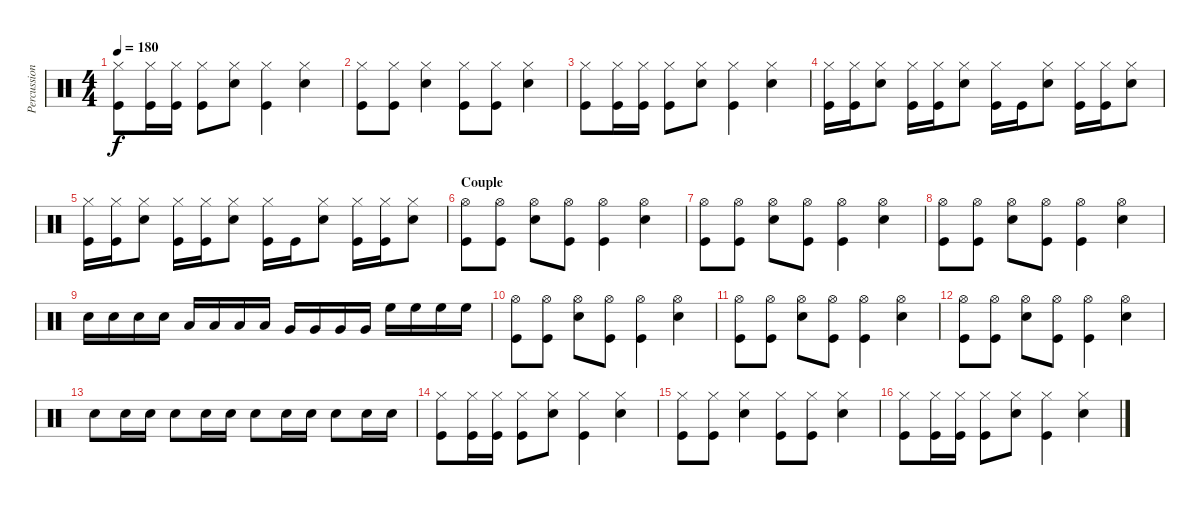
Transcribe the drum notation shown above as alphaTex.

\track ("Percussion" "Percussion") {instrument percussion}
\staff {score}
\articulation defaults
\ts (4 4)
\tempo 180
\clef neutral
\ks c
("Hi-Hat (closed)" "Kick (hit)").8{dy f} ("Hi-Hat (closed)" "Kick (hit)").16 ("Hi-Hat (closed)" "Kick (hit)").16 ("Hi-Hat (closed)" "Kick (hit)").8 ("Hi-Hat (closed)" "Snare (hit) 2").8 ("Hi-Hat (closed)" "Kick (hit)").4 ("Hi-Hat (closed)" "Snare (hit) 2").4 |
("Hi-Hat (closed)" "Kick (hit)").8 ("Hi-Hat (closed)" "Kick (hit)").8 ("Hi-Hat (closed)" "Snare (hit) 2").4 ("Hi-Hat (closed)" "Kick (hit)").8 ("Hi-Hat (closed)" "Kick (hit)").8 ("Hi-Hat (closed)" "Snare (hit) 2").4 |
("Hi-Hat (closed)" "Kick (hit)").8 ("Hi-Hat (closed)" "Kick (hit)").16 ("Hi-Hat (closed)" "Kick (hit)").16 ("Hi-Hat (closed)" "Kick (hit)").8 ("Hi-Hat (closed)" "Snare (hit) 2").8 ("Hi-Hat (closed)" "Kick (hit)").4 ("Hi-Hat (closed)" "Snare (hit) 2").4 |
("Hi-Hat (closed)" "Kick (hit)").16 ("Hi-Hat (closed)" "Kick (hit)").16 ("Hi-Hat (closed)" "Snare (hit) 2").8 ("Hi-Hat (closed)" "Kick (hit)").16 ("Hi-Hat (closed)" "Kick (hit)").16 ("Hi-Hat (closed)" "Snare (hit) 2").8 ("Hi-Hat (closed)" "Kick (hit)").16 "Kick (hit)".16 ("Hi-Hat (closed)" "Snare (hit) 2").8 ("Hi-Hat (closed)" "Kick (hit)").16 ("Hi-Hat (closed)" "Kick (hit)").16 ("Hi-Hat (closed)" "Snare (hit) 2").8 |
("Hi-Hat (closed)" "Kick (hit)").16 ("Hi-Hat (closed)" "Kick (hit)").16 ("Hi-Hat (closed)" "Snare (hit) 2").8 ("Hi-Hat (closed)" "Kick (hit)").16 ("Hi-Hat (closed)" "Kick (hit)").16 ("Hi-Hat (closed)" "Snare (hit) 2").8 ("Hi-Hat (closed)" "Kick (hit)").16 "Kick (hit)".16 ("Hi-Hat (closed)" "Snare (hit) 2").8 ("Hi-Hat (closed)" "Kick (hit)").16 ("Hi-Hat (closed)" "Kick (hit)").16 ("Hi-Hat (closed)" "Snare (hit) 2").8 |
\section ("" "Couple")
("Hi-Hat (open)" "Kick (hit)").8 ("Hi-Hat (open)" "Kick (hit)").8 ("Hi-Hat (open)" "Snare (hit) 2").8 ("Hi-Hat (open)" "Kick (hit)").8 ("Hi-Hat (open)" "Kick (hit)").4 ("Hi-Hat (open)" "Snare (hit) 2").4 |
("Hi-Hat (open)" "Kick (hit)").8 ("Hi-Hat (open)" "Kick (hit)").8 ("Hi-Hat (open)" "Snare (hit) 2").8 ("Hi-Hat (open)" "Kick (hit)").8 ("Hi-Hat (open)" "Kick (hit)").4 ("Hi-Hat (open)" "Snare (hit) 2").4 |
("Hi-Hat (open)" "Kick (hit)").8 ("Hi-Hat (open)" "Kick (hit)").8 ("Hi-Hat (open)" "Snare (hit) 2").8 ("Hi-Hat (open)" "Kick (hit)").8 ("Hi-Hat (open)" "Kick (hit)").4 ("Hi-Hat (open)" "Snare (hit) 2").4 |
"Snare (hit) 2".16 "Snare (hit) 2".16 "Snare (hit) 2".16 "Snare (hit) 2".16 "Low Floor Tom (hit)".16 "Low Floor Tom (hit)".16 "Low Floor Tom (hit)".16 "Low Floor Tom (hit)".16 "Very Low Tom (hit)".16 "Very Low Tom (hit)".16 "Very Low Tom (hit)".16 "Very Low Tom (hit)".16 "High Floor Tom (hit)".16 "High Floor Tom (hit)".16 "High Floor Tom (hit)".16 "High Floor Tom (hit)".16 |
("Hi-Hat (open)" "Kick (hit)").8 ("Hi-Hat (open)" "Kick (hit)").8 ("Hi-Hat (open)" "Snare (hit) 2").8 ("Hi-Hat (open)" "Kick (hit)").8 ("Hi-Hat (open)" "Kick (hit)").4 ("Hi-Hat (open)" "Snare (hit) 2").4 |
("Hi-Hat (open)" "Kick (hit)").8 ("Hi-Hat (open)" "Kick (hit)").8 ("Hi-Hat (open)" "Snare (hit) 2").8 ("Hi-Hat (open)" "Kick (hit)").8 ("Hi-Hat (open)" "Kick (hit)").4 ("Hi-Hat (open)" "Snare (hit) 2").4 |
("Hi-Hat (open)" "Kick (hit)").8 ("Hi-Hat (open)" "Kick (hit)").8 ("Hi-Hat (open)" "Snare (hit) 2").8 ("Hi-Hat (open)" "Kick (hit)").8 ("Hi-Hat (open)" "Kick (hit)").4 ("Hi-Hat (open)" "Snare (hit) 2").4 |
"Snare (hit) 2".8 "Snare (hit) 2".16 "Snare (hit) 2".16 "Snare (hit) 2".8 "Snare (hit) 2".16 "Snare (hit) 2".16 "Snare (hit) 2".8 "Snare (hit) 2".16 "Snare (hit) 2".16 "Snare (hit) 2".8 "Snare (hit) 2".16 "Snare (hit) 2".16 |
("Hi-Hat (closed)" "Kick (hit)").8 ("Hi-Hat (closed)" "Kick (hit)").16 ("Hi-Hat (closed)" "Kick (hit)").16 ("Hi-Hat (closed)" "Kick (hit)").8 ("Hi-Hat (closed)" "Snare (hit) 2").8 ("Hi-Hat (closed)" "Kick (hit)").4 ("Hi-Hat (closed)" "Snare (hit) 2").4 |
("Hi-Hat (closed)" "Kick (hit)").8 ("Hi-Hat (closed)" "Kick (hit)").8 ("Hi-Hat (closed)" "Snare (hit) 2").4 ("Hi-Hat (closed)" "Kick (hit)").8 ("Hi-Hat (closed)" "Kick (hit)").8 ("Hi-Hat (closed)" "Snare (hit) 2").4 |
("Hi-Hat (closed)" "Kick (hit)").8 ("Hi-Hat (closed)" "Kick (hit)").16 ("Hi-Hat (closed)" "Kick (hit)").16 ("Hi-Hat (closed)" "Kick (hit)").8 ("Hi-Hat (closed)" "Snare (hit) 2").8 ("Hi-Hat (closed)" "Kick (hit)").4 ("Hi-Hat (closed)" "Snare (hit) 2").4
